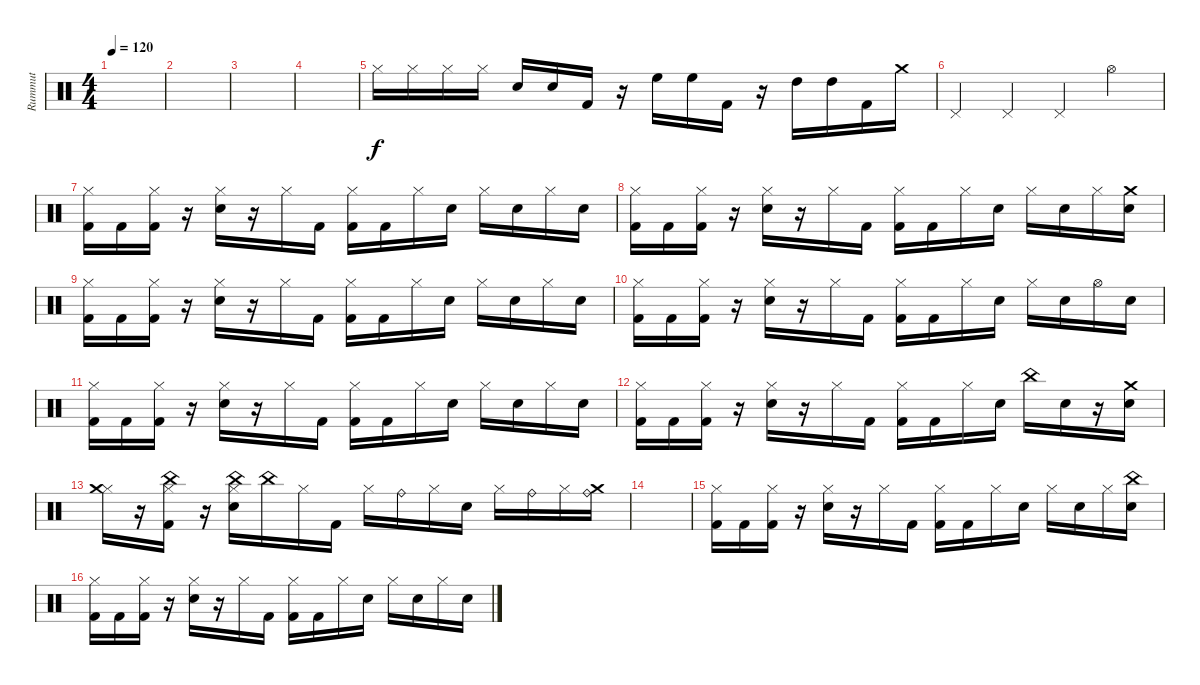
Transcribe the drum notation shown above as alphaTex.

\track ("Rummut" "Rummut") {instrument percussion}
\staff {score}
\articulation defaults
\ts (4 4)
\tempo 120
\clef neutral
\ks c
|
|
|
|
"Hi-Hat (closed)".16 "Hi-Hat (closed)".16 "Hi-Hat (closed)".16 "Hi-Hat (closed)".16 "Snare (hit) 2".16 "Snare (hit) 2".16 "Kick (hit) 2".16 r.16 "High Floor Tom (hit)".16 "High Floor Tom (hit)".16 "Kick (hit) 2".16 r.16 "High Tom (hit)".16 "High Tom (hit)".16 "Kick (hit) 2".16 "Crash medium (hit)".16 |
"Pedal Hi-Hat (hit)".4 "Pedal Hi-Hat (hit)".4 "Pedal Hi-Hat (hit)".4 "Hi-Hat (open)".4 |
("Hi-Hat (closed)" "Kick (hit) 2").16 "Kick (hit) 2".16 ("Hi-Hat (closed)" "Kick (hit) 2").16 r.16 ("Hi-Hat (closed)" "Snare (hit) 2").16 r.16 "Hi-Hat (closed)".16 "Kick (hit) 2".16 ("Hi-Hat (closed)" "Kick (hit) 2").16 "Kick (hit) 2".16 "Hi-Hat (closed)".16 "Snare (hit) 2".16 "Hi-Hat (closed)".16 "Snare (hit) 2".16 "Hi-Hat (closed)".16 "Snare (hit) 2".16 |
("Hi-Hat (closed)" "Kick (hit) 2").16 "Kick (hit) 2".16 ("Hi-Hat (closed)" "Kick (hit) 2").16 r.16 ("Hi-Hat (closed)" "Snare (hit) 2").16 r.16 "Hi-Hat (closed)".16 "Kick (hit) 2".16 ("Hi-Hat (closed)" "Kick (hit) 2").16 "Kick (hit) 2".16 "Hi-Hat (closed)".16 "Snare (hit) 2".16 "Hi-Hat (closed)".16 "Snare (hit) 2".16 "Hi-Hat (closed)".16 ("Crash medium (hit)" "Snare (hit) 2").16 |
("Hi-Hat (closed)" "Kick (hit) 2").16 "Kick (hit) 2".16 ("Hi-Hat (closed)" "Kick (hit) 2").16 r.16 ("Hi-Hat (closed)" "Snare (hit) 2").16 r.16 "Hi-Hat (closed)".16 "Kick (hit) 2".16 ("Hi-Hat (closed)" "Kick (hit) 2").16 "Kick (hit) 2".16 "Hi-Hat (closed)".16 "Snare (hit) 2".16 "Hi-Hat (closed)".16 "Snare (hit) 2".16 "Hi-Hat (closed)".16 "Snare (hit) 2".16 |
("Hi-Hat (closed)" "Kick (hit) 2").16 "Kick (hit) 2".16 ("Hi-Hat (closed)" "Kick (hit) 2").16 r.16 ("Hi-Hat (closed)" "Snare (hit) 2").16 r.16 "Hi-Hat (closed)".16 "Kick (hit) 2".16 ("Hi-Hat (closed)" "Kick (hit) 2").16 "Kick (hit) 2".16 "Hi-Hat (closed)".16 "Snare (hit) 2".16 "Hi-Hat (closed)".16 "Snare (hit) 2".16 "Hi-Hat (open)".16 "Snare (hit) 2".16 |
("Hi-Hat (closed)" "Kick (hit) 2").16 "Kick (hit) 2".16 ("Hi-Hat (closed)" "Kick (hit) 2").16 r.16 ("Hi-Hat (closed)" "Snare (hit) 2").16 r.16 "Hi-Hat (closed)".16 "Kick (hit) 2".16 ("Hi-Hat (closed)" "Kick (hit) 2").16 "Kick (hit) 2".16 "Hi-Hat (closed)".16 "Snare (hit) 2".16 "Hi-Hat (closed)".16 "Snare (hit) 2".16 "Hi-Hat (closed)".16 "Snare (hit) 2".16 |
("Hi-Hat (closed)" "Kick (hit) 2").16 "Kick (hit) 2".16 ("Hi-Hat (closed)" "Kick (hit) 2").16 r.16 ("Hi-Hat (closed)" "Snare (hit) 2").16 r.16 "Hi-Hat (closed)".16 "Kick (hit) 2".16 ("Hi-Hat (closed)" "Kick (hit) 2").16 "Kick (hit) 2".16 "Hi-Hat (closed)".16 "Snare (hit) 2".16 "China (hit)".16 "Snare (hit) 2".16 r.16 ("Crash medium (hit)" "Snare (hit) 2").16 |
("Hi-Hat (closed)" "Crash medium (hit)").16 r.16 ("Hi-Hat (closed)" "Kick (hit) 2" "China (hit)").16 r.16 ("Hi-Hat (closed)" "Snare (hit) 2" "China (hit)").16 "China (hit)".16 "Hi-Hat (closed)".16 "Kick (hit) 2".16 "Hi-Hat (closed)".16 "Ride (bell)".16 "Hi-Hat (closed)".16 "Snare (hit) 2".16 "Hi-Hat (closed)".16 "Ride (bell)".16 "Hi-Hat (closed)".16 ("Crash medium (hit)" "Ride (bell)").16 |
|
("Hi-Hat (closed)" "Kick (hit) 2").16 "Kick (hit) 2".16 ("Hi-Hat (closed)" "Kick (hit) 2").16 r.16 ("Hi-Hat (closed)" "Snare (hit) 2").16 r.16 "Hi-Hat (closed)".16 "Kick (hit) 2".16 ("Hi-Hat (closed)" "Kick (hit) 2").16 "Kick (hit) 2".16 "Hi-Hat (closed)".16 "Snare (hit) 2".16 "Hi-Hat (closed)".16 "Snare (hit) 2".16 "Hi-Hat (closed)".16 ("China (hit)" "Snare (hit) 2").16 |
("Hi-Hat (closed)" "Kick (hit) 2").16 "Kick (hit) 2".16 ("Hi-Hat (closed)" "Kick (hit) 2").16 r.16 ("Hi-Hat (closed)" "Snare (hit) 2").16 r.16 "Hi-Hat (closed)".16 "Kick (hit) 2".16 ("Hi-Hat (closed)" "Kick (hit) 2").16 "Kick (hit) 2".16 "Hi-Hat (closed)".16 "Snare (hit) 2".16 "Hi-Hat (closed)".16 "Snare (hit) 2".16 "Hi-Hat (closed)".16 "Snare (hit) 2".16
